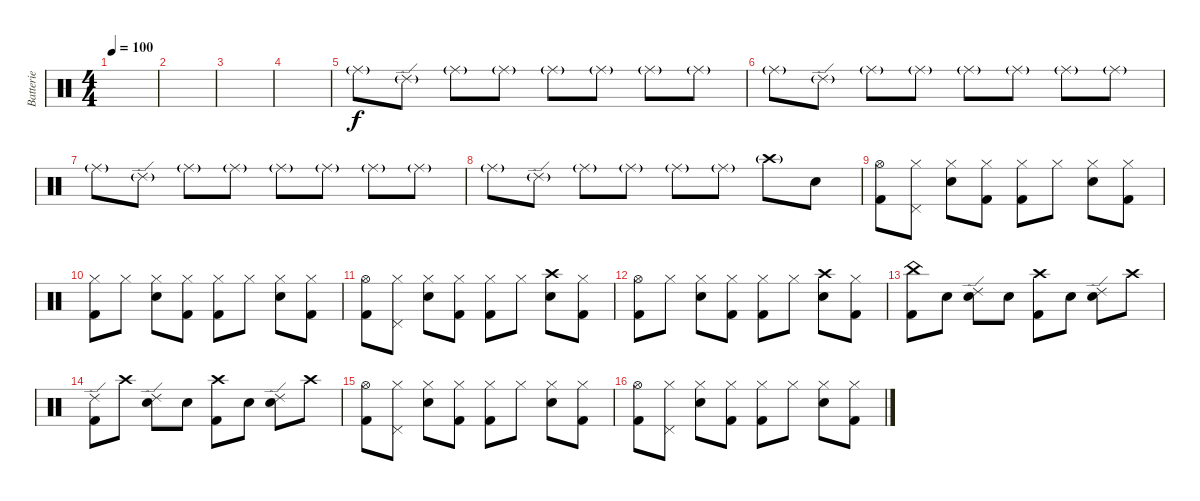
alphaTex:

\track ("Batterie" "Batterie") {instrument percussion}
\staff {score}
\articulation defaults
\ts (4 4)
\tempo 100
\clef neutral
\ks c
|
|
|
|
"Ride (middle)"{g}.8 "Ride (edge) 2"{g}.8 "Ride (middle)"{g}.8 "Ride (middle)"{g}.8 "Ride (middle)"{g}.8 "Ride (middle)"{g}.8 "Ride (middle)"{g}.8 "Ride (middle)"{g}.8 |
"Ride (middle)"{g}.8 "Ride (edge) 2"{g}.8 "Ride (middle)"{g}.8 "Ride (middle)"{g}.8 "Ride (middle)"{g}.8 "Ride (middle)"{g}.8 "Ride (middle)"{g}.8 "Ride (middle)"{g}.8 |
"Ride (middle)"{g}.8 "Ride (edge) 2"{g}.8 "Ride (middle)"{g}.8 "Ride (middle)"{g}.8 "Ride (middle)"{g}.8 "Ride (middle)"{g}.8 "Ride (middle)"{g}.8 "Ride (middle)"{g}.8 |
"Ride (middle)"{g}.8 "Ride (edge) 2"{g}.8 "Ride (middle)"{g}.8 "Ride (middle)"{g}.8 "Ride (middle)"{g}.8 "Ride (middle)"{g}.8 "Crash high (hit)"{g}.8 "Electric Snare (hit)".8{dy f} |
("Hi-Hat (open)" "Kick (hit) 2").8 ("Hi-Hat (closed)" "Pedal Hi-Hat (hit)").8 ("Hi-Hat (closed)" "Electric Snare (hit)").8 ("Hi-Hat (closed)" "Kick (hit) 2").8 ("Hi-Hat (closed)" "Kick (hit) 2").8 "Hi-Hat (closed)".8 ("Hi-Hat (closed)" "Electric Snare (hit)").8 ("Hi-Hat (closed)" "Kick (hit) 2").8 |
("Hi-Hat (closed)" "Kick (hit) 2").8 "Hi-Hat (closed)".8 ("Hi-Hat (closed)" "Electric Snare (hit)").8 ("Hi-Hat (closed)" "Kick (hit) 2").8 ("Hi-Hat (closed)" "Kick (hit) 2").8 "Hi-Hat (closed)".8 ("Hi-Hat (closed)" "Electric Snare (hit)").8 ("Hi-Hat (closed)" "Kick (hit) 2").8 |
("Hi-Hat (open)" "Kick (hit) 2").8 ("Hi-Hat (closed)" "Pedal Hi-Hat (hit)").8 ("Hi-Hat (closed)" "Electric Snare (hit)").8 ("Hi-Hat (closed)" "Kick (hit) 2").8 ("Hi-Hat (closed)" "Kick (hit) 2").8 "Hi-Hat (closed)".8 ("Crash high (hit)" "Electric Snare (hit)").8 ("Hi-Hat (closed)" "Kick (hit) 2").8 |
("Hi-Hat (open)" "Kick (hit) 2").8 "Hi-Hat (closed)".8 ("Hi-Hat (closed)" "Electric Snare (hit)").8 ("Hi-Hat (closed)" "Kick (hit) 2").8 ("Hi-Hat (closed)" "Kick (hit) 2").8 "Hi-Hat (closed)".8 ("Crash high (hit)" "Electric Snare (hit)").8 ("Hi-Hat (closed)" "Kick (hit) 2").8 |
("China (hit)" "Kick (hit) 2").8 "Snare (hit)".8 ("Ride (edge) 2" "Electric Snare (hit)").8 "Snare (hit)".8 ("Crash high (hit)" "Kick (hit) 2").8 "Snare (hit)".8 ("Ride (edge) 2" "Electric Snare (hit)").8 "Crash high (hit)".8 |
("Ride (edge) 2" "Kick (hit) 2").8 "Crash high (hit)".8 ("Ride (edge) 2" "Electric Snare (hit)").8 "Snare (hit)".8 ("Crash high (hit)" "Kick (hit) 2").8 "Snare (hit)".8 ("Ride (edge) 2" "Electric Snare (hit)").8 "Crash high (hit)".8 |
("Hi-Hat (open)" "Kick (hit) 2").8 ("Hi-Hat (closed)" "Pedal Hi-Hat (hit)").8 ("Hi-Hat (closed)" "Electric Snare (hit)").8 ("Hi-Hat (closed)" "Kick (hit) 2").8 ("Hi-Hat (closed)" "Kick (hit) 2").8 "Hi-Hat (closed)".8 ("Hi-Hat (closed)" "Electric Snare (hit)").8 ("Hi-Hat (closed)" "Kick (hit) 2").8 |
("Hi-Hat (open)" "Kick (hit) 2").8 ("Hi-Hat (closed)" "Pedal Hi-Hat (hit)").8 ("Hi-Hat (closed)" "Electric Snare (hit)").8 ("Hi-Hat (closed)" "Kick (hit) 2").8 ("Hi-Hat (closed)" "Kick (hit) 2").8 "Hi-Hat (closed)".8 ("Hi-Hat (closed)" "Electric Snare (hit)").8 ("Hi-Hat (closed)" "Kick (hit) 2").8
